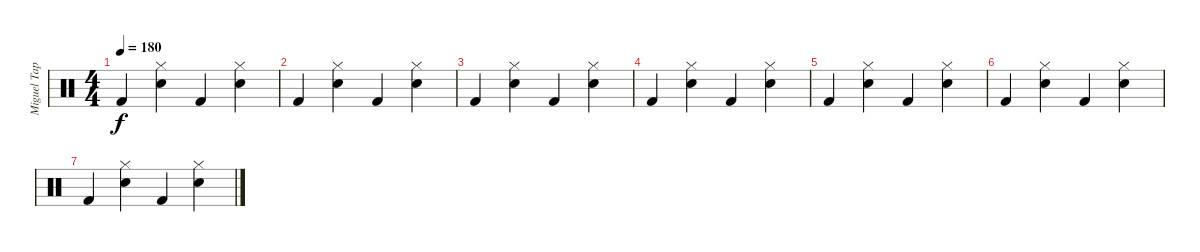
\track ("Miguel Tapia" "Miguel Tap") {instrument percussion}
\staff {score}
\articulation defaults
\ts (4 4)
\tempo 180
\clef neutral
\ks c "Kick (hit) 2".4{dy f}
("Electric Snare (hit)" "Hi-Hat (closed)").4 "Kick (hit) 2".4 ("Electric Snare (hit)" "Hi-Hat (closed)").4 |
"Kick (hit) 2".4 ("Electric Snare (hit)" "Hi-Hat (closed)").4 "Kick (hit) 2".4 ("Electric Snare (hit)" "Hi-Hat (closed)").4 |
"Kick (hit) 2".4 ("Electric Snare (hit)" "Hi-Hat (closed)").4 "Kick (hit) 2".4 ("Electric Snare (hit)" "Hi-Hat (closed)").4 |
"Kick (hit) 2".4 ("Electric Snare (hit)" "Hi-Hat (closed)").4 "Kick (hit) 2".4 ("Electric Snare (hit)" "Hi-Hat (closed)").4 |
"Kick (hit) 2".4 ("Electric Snare (hit)" "Hi-Hat (closed)").4 "Kick (hit) 2".4 ("Electric Snare (hit)" "Hi-Hat (closed)").4 |
"Kick (hit) 2".4 ("Electric Snare (hit)" "Hi-Hat (closed)").4 "Kick (hit) 2".4 ("Electric Snare (hit)" "Hi-Hat (closed)").4 |
"Kick (hit) 2".4 ("Electric Snare (hit)" "Hi-Hat (closed)").4 "Kick (hit) 2".4 ("Electric Snare (hit)" "Hi-Hat (closed)").4
